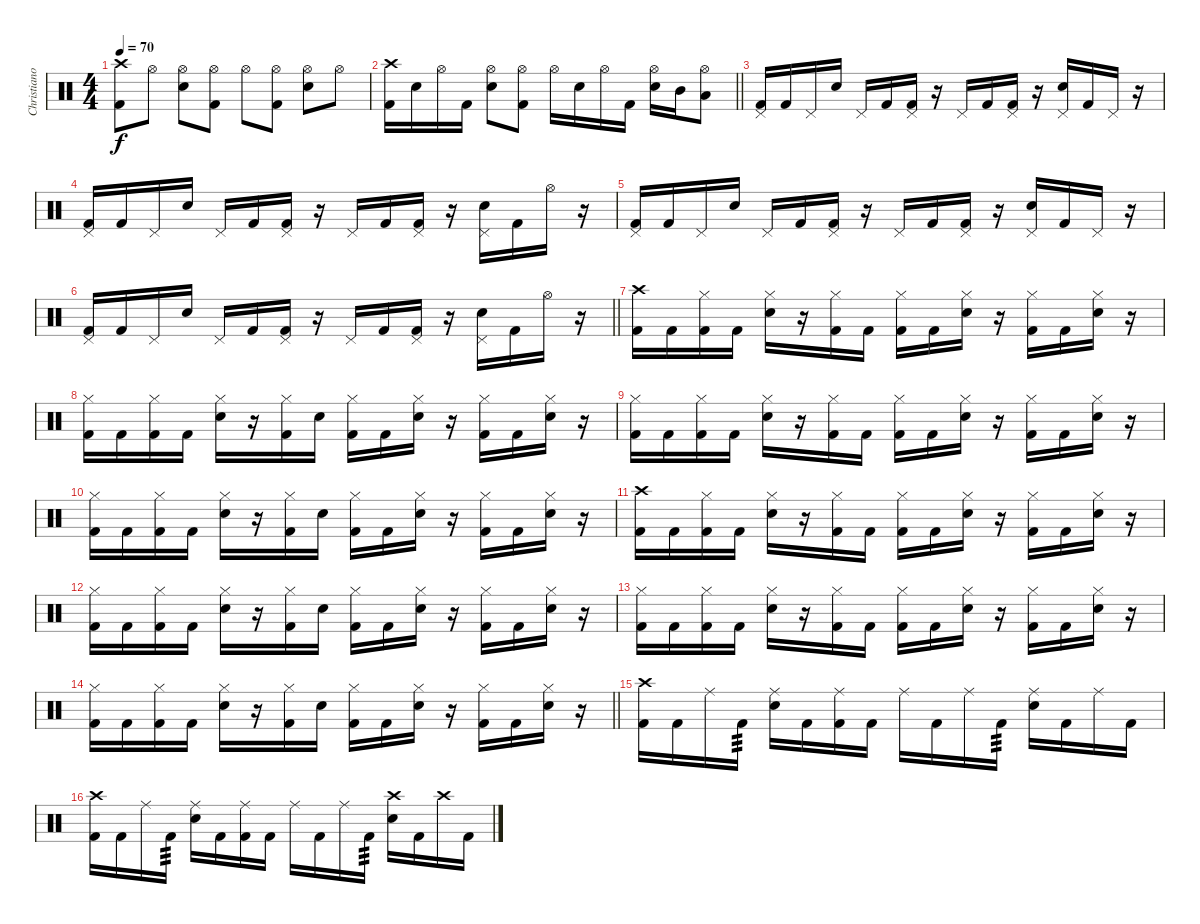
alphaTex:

\track ("Christiano Mozzati" "Christiano") {instrument percussion}
\staff {score}
\articulation defaults
\ts (4 4)
\tempo 70
\clef neutral
\ks c
("Crash high (hit)" "Kick (hit) 2").8{dy f} "Hi-Hat (open)".8 ("Hi-Hat (open)" "Snare (hit) 2").8 ("Hi-Hat (open)" "Kick (hit) 2").8 "Hi-Hat (open)".8 ("Hi-Hat (open)" "Kick (hit) 2").8 ("Hi-Hat (open)" "Snare (hit) 2").8 "Hi-Hat (open)".8 |
\barLineRight lightlight
("Crash high (hit)" "Kick (hit) 2").16 "Snare (hit) 2".16 "Hi-Hat (open)".16 "Kick (hit) 2".16 ("Hi-Hat (open)" "Snare (hit) 2").8 ("Hi-Hat (open)" "Kick (hit) 2").8 "Hi-Hat (open)".16 "Snare (hit) 2".16 "Hi-Hat (open)".16 "Kick (hit) 2".16 ("Hi-Hat (open)" "Snare (hit) 2").16 "Mid Tom (hit)".16 ("Hi-Hat (open)" "Low Tom (hit)").8 |
("Pedal Hi-Hat (hit)" "Kick (hit) 2").16 "Kick (hit) 2".16 "Pedal Hi-Hat (hit)".16 "Snare (hit) 2".16 "Pedal Hi-Hat (hit)".16 "Kick (hit) 2".16 ("Pedal Hi-Hat (hit)" "Kick (hit) 2").16 r.16 "Pedal Hi-Hat (hit)".16 "Kick (hit) 2".16 ("Pedal Hi-Hat (hit)" "Kick (hit) 2").16 r.16 ("Pedal Hi-Hat (hit)" "Snare (hit) 2").16 "Kick (hit) 2".16 "Pedal Hi-Hat (hit)".16 r.16 |
("Pedal Hi-Hat (hit)" "Kick (hit) 2").16 "Kick (hit) 2".16 "Pedal Hi-Hat (hit)".16 "Snare (hit) 2".16 "Pedal Hi-Hat (hit)".16 "Kick (hit) 2".16 ("Pedal Hi-Hat (hit)" "Kick (hit) 2").16 r.16 "Pedal Hi-Hat (hit)".16 "Kick (hit) 2".16 ("Pedal Hi-Hat (hit)" "Kick (hit) 2").16 r.16 ("Pedal Hi-Hat (hit)" "Snare (hit) 2").16 "Kick (hit) 2".16 "Hi-Hat (open)".16 r.16 |
("Pedal Hi-Hat (hit)" "Kick (hit) 2").16 "Kick (hit) 2".16 "Pedal Hi-Hat (hit)".16 "Snare (hit) 2".16 "Pedal Hi-Hat (hit)".16 "Kick (hit) 2".16 ("Pedal Hi-Hat (hit)" "Kick (hit) 2").16 r.16 "Pedal Hi-Hat (hit)".16 "Kick (hit) 2".16 ("Pedal Hi-Hat (hit)" "Kick (hit) 2").16 r.16 ("Pedal Hi-Hat (hit)" "Snare (hit) 2").16 "Kick (hit) 2".16 "Pedal Hi-Hat (hit)".16 r.16 |
\barLineRight lightlight
("Pedal Hi-Hat (hit)" "Kick (hit) 2").16 "Kick (hit) 2".16 "Pedal Hi-Hat (hit)".16 "Snare (hit) 2".16 "Pedal Hi-Hat (hit)".16 "Kick (hit) 2".16 ("Pedal Hi-Hat (hit)" "Kick (hit) 2").16 r.16 "Pedal Hi-Hat (hit)".16 "Kick (hit) 2".16 ("Pedal Hi-Hat (hit)" "Kick (hit) 2").16 r.16 ("Pedal Hi-Hat (hit)" "Snare (hit) 2").16 "Kick (hit) 2".16 "Hi-Hat (open)".16 r.16 |
("Crash high (hit)" "Kick (hit) 2").16 "Kick (hit) 2".16 ("Hi-Hat (closed)" "Kick (hit) 2").16 "Kick (hit) 2".16 ("Hi-Hat (closed)" "Snare (hit) 2").16 r.16 ("Hi-Hat (closed)" "Kick (hit) 2").16 "Kick (hit) 2".16 ("Hi-Hat (closed)" "Kick (hit) 2").16 "Kick (hit) 2".16 ("Hi-Hat (closed)" "Snare (hit) 2").16 r.16 ("Hi-Hat (closed)" "Kick (hit) 2").16 "Kick (hit) 2".16 ("Hi-Hat (closed)" "Snare (hit) 2").16 r.16 |
("Hi-Hat (closed)" "Kick (hit) 2").16 "Kick (hit) 2".16 ("Hi-Hat (closed)" "Kick (hit) 2").16 "Kick (hit) 2".16 ("Hi-Hat (closed)" "Snare (hit) 2").16 r.16 ("Hi-Hat (closed)" "Kick (hit) 2").16 "Snare (hit) 2".16 ("Hi-Hat (closed)" "Kick (hit) 2").16 "Kick (hit) 2".16 ("Hi-Hat (closed)" "Snare (hit) 2").16 r.16 ("Hi-Hat (closed)" "Kick (hit) 2").16 "Kick (hit) 2".16 ("Hi-Hat (closed)" "Snare (hit) 2").16 r.16 |
("Hi-Hat (closed)" "Kick (hit) 2").16 "Kick (hit) 2".16 ("Hi-Hat (closed)" "Kick (hit) 2").16 "Kick (hit) 2".16 ("Hi-Hat (closed)" "Snare (hit) 2").16 r.16 ("Hi-Hat (closed)" "Kick (hit) 2").16 "Kick (hit) 2".16 ("Hi-Hat (closed)" "Kick (hit) 2").16 "Kick (hit) 2".16 ("Hi-Hat (closed)" "Snare (hit) 2").16 r.16 ("Hi-Hat (closed)" "Kick (hit) 2").16 "Kick (hit) 2".16 ("Hi-Hat (closed)" "Snare (hit) 2").16 r.16 |
("Hi-Hat (closed)" "Kick (hit) 2").16 "Kick (hit) 2".16 ("Hi-Hat (closed)" "Kick (hit) 2").16 "Kick (hit) 2".16 ("Hi-Hat (closed)" "Snare (hit) 2").16 r.16 ("Hi-Hat (closed)" "Kick (hit) 2").16 "Snare (hit) 2".16 ("Hi-Hat (closed)" "Kick (hit) 2").16 "Kick (hit) 2".16 ("Hi-Hat (closed)" "Snare (hit) 2").16 r.16 ("Hi-Hat (closed)" "Kick (hit) 2").16 "Kick (hit) 2".16 ("Hi-Hat (closed)" "Snare (hit) 2").16 r.16 |
("Crash high (hit)" "Kick (hit) 2").16 "Kick (hit) 2".16 ("Hi-Hat (closed)" "Kick (hit) 2").16 "Kick (hit) 2".16 ("Hi-Hat (closed)" "Snare (hit) 2").16 r.16 ("Hi-Hat (closed)" "Kick (hit) 2").16 "Kick (hit) 2".16 ("Hi-Hat (closed)" "Kick (hit) 2").16 "Kick (hit) 2".16 ("Hi-Hat (closed)" "Snare (hit) 2").16 r.16 ("Hi-Hat (closed)" "Kick (hit) 2").16 "Kick (hit) 2".16 ("Hi-Hat (closed)" "Snare (hit) 2").16 r.16 |
("Hi-Hat (closed)" "Kick (hit) 2").16 "Kick (hit) 2".16 ("Hi-Hat (closed)" "Kick (hit) 2").16 "Kick (hit) 2".16 ("Hi-Hat (closed)" "Snare (hit) 2").16 r.16 ("Hi-Hat (closed)" "Kick (hit) 2").16 "Snare (hit) 2".16 ("Hi-Hat (closed)" "Kick (hit) 2").16 "Kick (hit) 2".16 ("Hi-Hat (closed)" "Snare (hit) 2").16 r.16 ("Hi-Hat (closed)" "Kick (hit) 2").16 "Kick (hit) 2".16 ("Hi-Hat (closed)" "Snare (hit) 2").16 r.16 |
("Hi-Hat (closed)" "Kick (hit) 2").16 "Kick (hit) 2".16 ("Hi-Hat (closed)" "Kick (hit) 2").16 "Kick (hit) 2".16 ("Hi-Hat (closed)" "Snare (hit) 2").16 r.16 ("Hi-Hat (closed)" "Kick (hit) 2").16 "Kick (hit) 2".16 ("Hi-Hat (closed)" "Kick (hit) 2").16 "Kick (hit) 2".16 ("Hi-Hat (closed)" "Snare (hit) 2").16 r.16 ("Hi-Hat (closed)" "Kick (hit) 2").16 "Kick (hit) 2".16 ("Hi-Hat (closed)" "Snare (hit) 2").16 r.16 |
\barLineRight lightlight
("Hi-Hat (closed)" "Kick (hit) 2").16 "Kick (hit) 2".16 ("Hi-Hat (closed)" "Kick (hit) 2").16 "Kick (hit) 2".16 ("Hi-Hat (closed)" "Snare (hit) 2").16 r.16 ("Hi-Hat (closed)" "Kick (hit) 2").16 "Snare (hit) 2".16 ("Hi-Hat (closed)" "Kick (hit) 2").16 "Kick (hit) 2".16 ("Hi-Hat (closed)" "Snare (hit) 2").16 r.16 ("Hi-Hat (closed)" "Kick (hit) 2").16 "Kick (hit) 2".16 ("Hi-Hat (closed)" "Snare (hit) 2").16 r.16 |
("Crash high (hit)" "Kick (hit) 2").16 "Kick (hit) 2".16 "Ride (middle)".16 "Kick (hit) 2".16{tp 3} ("Ride (middle)" "Snare (hit) 2").16 "Kick (hit) 2".16 ("Ride (middle)" "Kick (hit) 2").16 "Kick (hit) 2".16 "Ride (middle)".16 "Kick (hit) 2".16 "Ride (middle)".16 "Kick (hit) 2".16{tp 3} ("Ride (middle)" "Snare (hit) 2").16 "Kick (hit) 2".16 "Ride (middle)".16 "Kick (hit) 2".16 |
("Crash high (hit)" "Kick (hit) 2").16 "Kick (hit) 2".16 "Ride (middle)".16 "Kick (hit) 2".16{tp 3} ("Ride (middle)" "Snare (hit) 2").16 "Kick (hit) 2".16 ("Ride (middle)" "Kick (hit) 2").16 "Kick (hit) 2".16 "Ride (middle)".16 "Kick (hit) 2".16 "Ride (middle)".16 "Kick (hit) 2".16{tp 3} ("Crash high (hit)" "Snare (hit) 2").16 "Kick (hit) 2".16 "Crash high (hit)".16 "Kick (hit) 2".16
